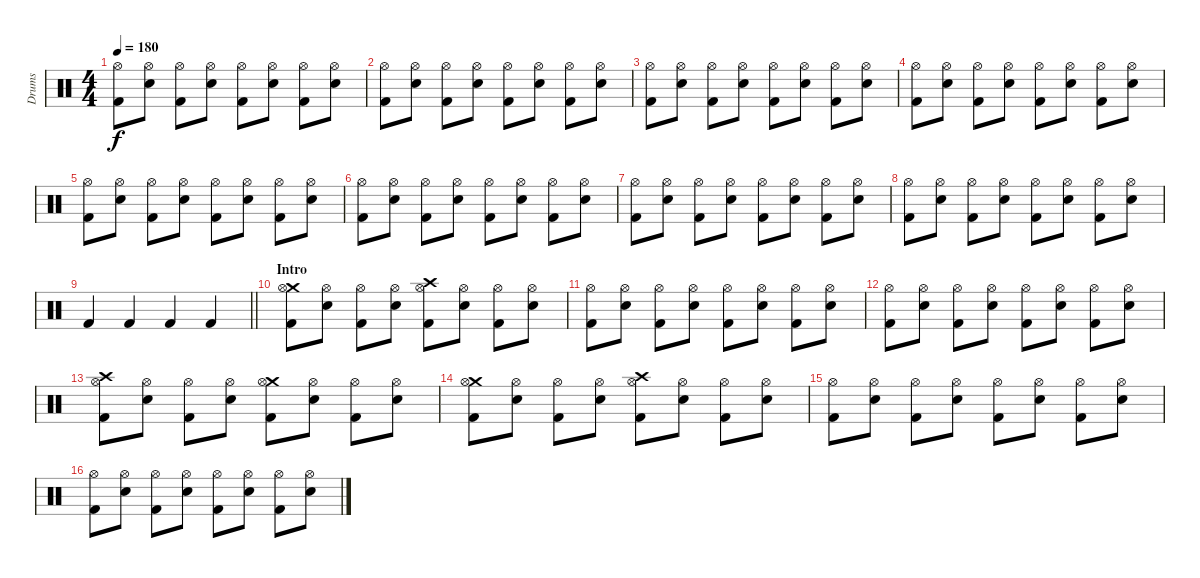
\track ("Drums" "Drums") {instrument percussion}
\staff {score}
\articulation defaults
\ts (4 4)
\tempo 180
\clef neutral
\ks c
("Hi-Hat (open)" "Kick (hit) 2").8{dy f} ("Hi-Hat (open)" "Snare (hit) 2").8 ("Hi-Hat (open)" "Kick (hit) 2").8 ("Hi-Hat (open)" "Snare (hit) 2").8 ("Hi-Hat (open)" "Kick (hit) 2").8 ("Hi-Hat (open)" "Snare (hit) 2").8 ("Hi-Hat (open)" "Kick (hit) 2").8 ("Hi-Hat (open)" "Snare (hit) 2").8 |
("Hi-Hat (open)" "Kick (hit) 2").8 ("Hi-Hat (open)" "Snare (hit) 2").8 ("Hi-Hat (open)" "Kick (hit) 2").8 ("Hi-Hat (open)" "Snare (hit) 2").8 ("Hi-Hat (open)" "Kick (hit) 2").8 ("Hi-Hat (open)" "Snare (hit) 2").8 ("Hi-Hat (open)" "Kick (hit) 2").8 ("Hi-Hat (open)" "Snare (hit) 2").8 |
("Hi-Hat (open)" "Kick (hit) 2").8 ("Hi-Hat (open)" "Snare (hit) 2").8 ("Hi-Hat (open)" "Kick (hit) 2").8 ("Hi-Hat (open)" "Snare (hit) 2").8 ("Hi-Hat (open)" "Kick (hit) 2").8 ("Hi-Hat (open)" "Snare (hit) 2").8 ("Hi-Hat (open)" "Kick (hit) 2").8 ("Hi-Hat (open)" "Snare (hit) 2").8 |
("Hi-Hat (open)" "Kick (hit) 2").8 ("Hi-Hat (open)" "Snare (hit) 2").8 ("Hi-Hat (open)" "Kick (hit) 2").8 ("Hi-Hat (open)" "Snare (hit) 2").8 ("Hi-Hat (open)" "Kick (hit) 2").8 ("Hi-Hat (open)" "Snare (hit) 2").8 ("Hi-Hat (open)" "Kick (hit) 2").8 ("Hi-Hat (open)" "Snare (hit) 2").8 |
("Hi-Hat (open)" "Kick (hit) 2").8 ("Hi-Hat (open)" "Snare (hit) 2").8 ("Hi-Hat (open)" "Kick (hit) 2").8 ("Hi-Hat (open)" "Snare (hit) 2").8 ("Hi-Hat (open)" "Kick (hit) 2").8 ("Hi-Hat (open)" "Snare (hit) 2").8 ("Hi-Hat (open)" "Kick (hit) 2").8 ("Hi-Hat (open)" "Snare (hit) 2").8 |
("Hi-Hat (open)" "Kick (hit) 2").8 ("Hi-Hat (open)" "Snare (hit) 2").8 ("Hi-Hat (open)" "Kick (hit) 2").8 ("Hi-Hat (open)" "Snare (hit) 2").8 ("Hi-Hat (open)" "Kick (hit) 2").8 ("Hi-Hat (open)" "Snare (hit) 2").8 ("Hi-Hat (open)" "Kick (hit) 2").8 ("Hi-Hat (open)" "Snare (hit) 2").8 |
("Hi-Hat (open)" "Kick (hit) 2").8 ("Hi-Hat (open)" "Snare (hit) 2").8 ("Hi-Hat (open)" "Kick (hit) 2").8 ("Hi-Hat (open)" "Snare (hit) 2").8 ("Hi-Hat (open)" "Kick (hit) 2").8 ("Hi-Hat (open)" "Snare (hit) 2").8 ("Hi-Hat (open)" "Kick (hit) 2").8 ("Hi-Hat (open)" "Snare (hit) 2").8 |
("Hi-Hat (open)" "Kick (hit) 2").8 ("Hi-Hat (open)" "Snare (hit) 2").8 ("Hi-Hat (open)" "Kick (hit) 2").8 ("Hi-Hat (open)" "Snare (hit) 2").8 ("Hi-Hat (open)" "Kick (hit) 2").8 ("Hi-Hat (open)" "Snare (hit) 2").8 ("Hi-Hat (open)" "Kick (hit) 2").8 ("Hi-Hat (open)" "Snare (hit) 2").8 |
\barLineRight lightlight "Kick (hit) 2".4 "Kick (hit) 2".4 "Kick (hit) 2".4 "Kick (hit) 2".4
|
\section ("" "Intro")
("Crash medium (hit)" "Hi-Hat (open)" "Kick (hit) 2").8 ("Hi-Hat (open)" "Snare (hit) 2").8 ("Hi-Hat (open)" "Kick (hit) 2").8 ("Hi-Hat (open)" "Snare (hit) 2").8 ("Crash high (hit)" "Hi-Hat (open)" "Kick (hit) 2").8 ("Hi-Hat (open)" "Snare (hit) 2").8 ("Hi-Hat (open)" "Kick (hit) 2").8 ("Hi-Hat (open)" "Snare (hit) 2").8 |
("Hi-Hat (open)" "Kick (hit) 2").8 ("Hi-Hat (open)" "Snare (hit) 2").8 ("Hi-Hat (open)" "Kick (hit) 2").8 ("Hi-Hat (open)" "Snare (hit) 2").8 ("Hi-Hat (open)" "Kick (hit) 2").8 ("Hi-Hat (open)" "Snare (hit) 2").8 ("Hi-Hat (open)" "Kick (hit) 2").8 ("Hi-Hat (open)" "Snare (hit) 2").8 |
("Hi-Hat (open)" "Kick (hit) 2").8 ("Hi-Hat (open)" "Snare (hit) 2").8 ("Hi-Hat (open)" "Kick (hit) 2").8 ("Hi-Hat (open)" "Snare (hit) 2").8 ("Hi-Hat (open)" "Kick (hit) 2").8 ("Hi-Hat (open)" "Snare (hit) 2").8 ("Hi-Hat (open)" "Kick (hit) 2").8 ("Hi-Hat (open)" "Snare (hit) 2").8 |
("Crash high (hit)" "Hi-Hat (open)" "Kick (hit) 2").8 ("Hi-Hat (open)" "Snare (hit) 2").8 ("Hi-Hat (open)" "Kick (hit) 2").8 ("Hi-Hat (open)" "Snare (hit) 2").8 ("Crash medium (hit)" "Hi-Hat (open)" "Kick (hit) 2").8 ("Hi-Hat (open)" "Snare (hit) 2").8 ("Hi-Hat (open)" "Kick (hit) 2").8 ("Hi-Hat (open)" "Snare (hit) 2").8 |
("Crash medium (hit)" "Hi-Hat (open)" "Kick (hit) 2").8 ("Hi-Hat (open)" "Snare (hit) 2").8 ("Hi-Hat (open)" "Kick (hit) 2").8 ("Hi-Hat (open)" "Snare (hit) 2").8 ("Crash high (hit)" "Hi-Hat (open)" "Kick (hit) 2").8 ("Hi-Hat (open)" "Snare (hit) 2").8 ("Hi-Hat (open)" "Kick (hit) 2").8 ("Hi-Hat (open)" "Snare (hit) 2").8 |
("Hi-Hat (open)" "Kick (hit) 2").8 ("Hi-Hat (open)" "Snare (hit) 2").8 ("Hi-Hat (open)" "Kick (hit) 2").8 ("Hi-Hat (open)" "Snare (hit) 2").8 ("Hi-Hat (open)" "Kick (hit) 2").8 ("Hi-Hat (open)" "Snare (hit) 2").8 ("Hi-Hat (open)" "Kick (hit) 2").8 ("Hi-Hat (open)" "Snare (hit) 2").8 |
("Hi-Hat (open)" "Kick (hit) 2").8 ("Hi-Hat (open)" "Snare (hit) 2").8 ("Hi-Hat (open)" "Kick (hit) 2").8 ("Hi-Hat (open)" "Snare (hit) 2").8 ("Hi-Hat (open)" "Kick (hit) 2").8 ("Hi-Hat (open)" "Snare (hit) 2").8 ("Hi-Hat (open)" "Kick (hit) 2").8 ("Hi-Hat (open)" "Snare (hit) 2").8
